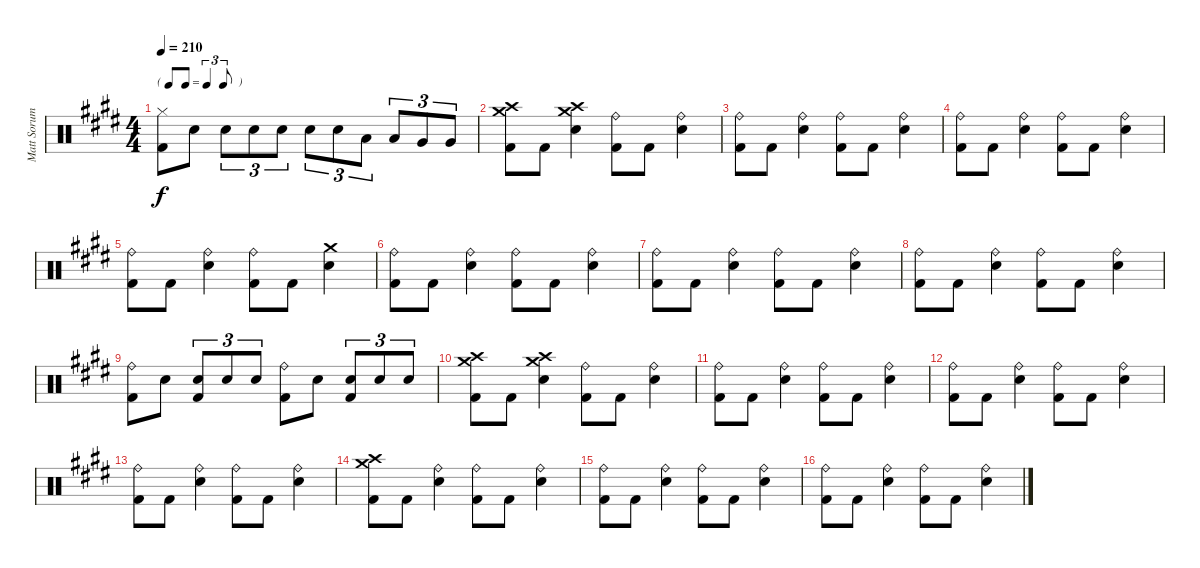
\track ("Matt Sorum - Drums" "Matt Sorum") {instrument percussion}
\staff {score}
\articulation defaults
\ts (4 4)
\tf triplet8th
\tempo 210
\clef neutral
\ks e
("Hi-Hat (closed)" "Kick (hit) 2").8{dy f} "Snare (hit) 2".8 "Snare (hit) 2".8{tu (3 2)} "Snare (hit) 2".8{tu (3 2)} "Snare (hit) 2".8{tu (3 2)} "Snare (hit) 2".8{tu (3 2)} "Snare (hit) 2".8{tu (3 2)} "Low Tom (hit)".8{tu (3 2)} "Low Tom (hit)".8{tu (3 2)} "Very Low Tom (hit)".8{tu (3 2)} "Very Low Tom (hit)".8{tu (3 2)} |
("Crash medium (hit)" "Crash high (hit)" "Kick (hit) 2").8 "Kick (hit) 2".8 ("Crash high (hit)" "Crash medium (hit)" "Snare (hit) 2").4 ("Ride (bell)" "Kick (hit) 2").8 "Kick (hit) 2".8 ("Ride (bell)" "Snare (hit) 2").4 |
("Ride (bell)" "Kick (hit) 2").8 "Kick (hit) 2".8 ("Ride (bell)" "Snare (hit) 2").4 ("Ride (bell)" "Kick (hit) 2").8 "Kick (hit) 2".8 ("Ride (bell)" "Snare (hit) 2").4 |
("Ride (bell)" "Kick (hit) 2").8 "Kick (hit) 2".8 ("Ride (bell)" "Snare (hit) 2").4 ("Ride (bell)" "Kick (hit) 2").8 "Kick (hit) 2".8 ("Ride (bell)" "Snare (hit) 2").4 |
("Ride (bell)" "Kick (hit) 2").8 "Kick (hit) 2".8 ("Ride (bell)" "Snare (hit) 2").4 ("Ride (bell)" "Kick (hit) 2").8 "Kick (hit) 2".8 ("Crash medium (hit)" "Snare (hit) 2").4 |
("Ride (bell)" "Kick (hit) 2").8 "Kick (hit) 2".8 ("Ride (bell)" "Snare (hit) 2").4 ("Ride (bell)" "Kick (hit) 2").8 "Kick (hit) 2".8 ("Ride (bell)" "Snare (hit) 2").4 |
("Ride (bell)" "Kick (hit) 2").8 "Kick (hit) 2".8 ("Ride (bell)" "Snare (hit) 2").4 ("Ride (bell)" "Kick (hit) 2").8 "Kick (hit) 2".8 ("Ride (bell)" "Snare (hit) 2").4 |
("Ride (bell)" "Kick (hit) 2").8 "Kick (hit) 2".8 ("Ride (bell)" "Snare (hit) 2").4 ("Ride (bell)" "Kick (hit) 2").8 "Kick (hit) 2".8 ("Ride (bell)" "Snare (hit) 2").4 |
("Ride (bell)" "Kick (hit) 2").8 "Snare (hit) 2".8 ("Snare (hit) 2" "Kick (hit) 2").8{tu (3 2)} "Snare (hit) 2".8{tu (3 2)} "Snare (hit) 2".8{tu (3 2)} ("Ride (bell)" "Kick (hit) 2").8 "Snare (hit) 2".8 ("Snare (hit) 2" "Kick (hit) 2").8{tu (3 2)} "Snare (hit) 2".8{tu (3 2)} "Snare (hit) 2".8{tu (3 2)} |
("Crash medium (hit)" "Crash high (hit)" "Kick (hit) 2").8 "Kick (hit) 2".8 ("Crash high (hit)" "Crash medium (hit)" "Snare (hit) 2").4 ("Ride (bell)" "Kick (hit) 2").8 "Kick (hit) 2".8 ("Ride (bell)" "Snare (hit) 2").4 |
("Ride (bell)" "Kick (hit) 2").8 "Kick (hit) 2".8 ("Ride (bell)" "Snare (hit) 2").4 ("Ride (bell)" "Kick (hit) 2").8 "Kick (hit) 2".8 ("Ride (bell)" "Snare (hit) 2").4 |
("Ride (bell)" "Kick (hit) 2").8 "Kick (hit) 2".8 ("Ride (bell)" "Snare (hit) 2").4 ("Ride (bell)" "Kick (hit) 2").8 "Kick (hit) 2".8 ("Ride (bell)" "Snare (hit) 2").4 |
("Ride (bell)" "Kick (hit) 2").8 "Kick (hit) 2".8 ("Ride (bell)" "Snare (hit) 2").4 ("Ride (bell)" "Kick (hit) 2").8 "Kick (hit) 2".8 ("Ride (bell)" "Snare (hit) 2").4 |
("Crash medium (hit)" "Crash high (hit)" "Kick (hit) 2").8 "Kick (hit) 2".8 ("Ride (bell)" "Snare (hit) 2").4 ("Ride (bell)" "Kick (hit) 2").8 "Kick (hit) 2".8 ("Ride (bell)" "Snare (hit) 2").4 |
("Ride (bell)" "Kick (hit) 2").8 "Kick (hit) 2".8 ("Ride (bell)" "Snare (hit) 2").4 ("Ride (bell)" "Kick (hit) 2").8 "Kick (hit) 2".8 ("Ride (bell)" "Snare (hit) 2").4 |
("Ride (bell)" "Kick (hit) 2").8 "Kick (hit) 2".8 ("Ride (bell)" "Snare (hit) 2").4 ("Ride (bell)" "Kick (hit) 2").8 "Kick (hit) 2".8 ("Ride (bell)" "Snare (hit) 2").4
